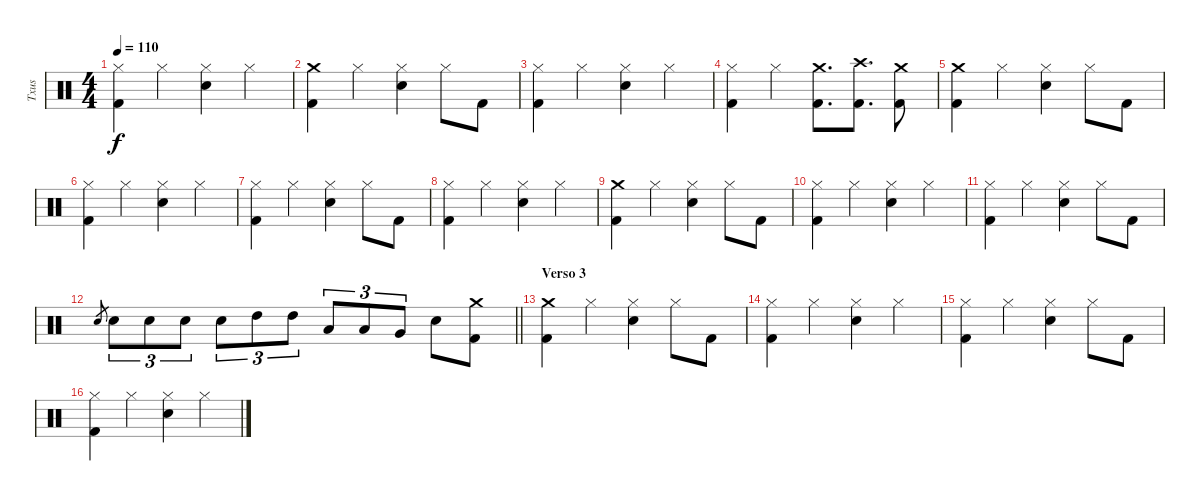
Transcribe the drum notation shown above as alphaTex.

\track ("Txus" "Txus") {instrument percussion}
\staff {score}
\articulation defaults
\ts (4 4)
\tempo 110
\clef neutral
\ks c
("Hi-Hat (closed)" "Kick (hit) 2").4{dy f} "Hi-Hat (closed)".4 ("Hi-Hat (closed)" "Electric Snare (hit)").4 "Hi-Hat (closed)".4 |
("Crash medium (hit)" "Kick (hit) 2").4 "Hi-Hat (closed)".4 ("Hi-Hat (closed)" "Electric Snare (hit)").4 "Hi-Hat (closed)".8 "Kick (hit) 2".8 |
("Hi-Hat (closed)" "Kick (hit) 2").4 "Hi-Hat (closed)".4 ("Hi-Hat (closed)" "Electric Snare (hit)").4 "Hi-Hat (closed)".4 |
("Hi-Hat (closed)" "Kick (hit) 2").4 "Hi-Hat (closed)".4 ("Crash medium (hit)" "Kick (hit) 2").8{d} ("Crash high (hit)" "Kick (hit) 2").8{d} ("Crash medium (hit)" "Kick (hit) 2").8 |
("Crash medium (hit)" "Kick (hit) 2").4 "Hi-Hat (closed)".4 ("Hi-Hat (closed)" "Electric Snare (hit)").4 "Hi-Hat (closed)".8 "Kick (hit) 2".8 |
("Hi-Hat (closed)" "Kick (hit) 2").4 "Hi-Hat (closed)".4 ("Hi-Hat (closed)" "Electric Snare (hit)").4 "Hi-Hat (closed)".4 |
("Hi-Hat (closed)" "Kick (hit) 2").4 "Hi-Hat (closed)".4 ("Hi-Hat (closed)" "Electric Snare (hit)").4 "Hi-Hat (closed)".8 "Kick (hit) 2".8 |
("Hi-Hat (closed)" "Kick (hit) 2").4 "Hi-Hat (closed)".4 ("Hi-Hat (closed)" "Electric Snare (hit)").4 "Hi-Hat (closed)".4 |
("Crash medium (hit)" "Kick (hit) 2").4 "Hi-Hat (closed)".4 ("Hi-Hat (closed)" "Electric Snare (hit)").4 "Hi-Hat (closed)".8 "Kick (hit) 2".8 |
("Hi-Hat (closed)" "Kick (hit) 2").4 "Hi-Hat (closed)".4 ("Hi-Hat (closed)" "Electric Snare (hit)").4 "Hi-Hat (closed)".4 |
("Hi-Hat (closed)" "Kick (hit) 2").4 "Hi-Hat (closed)".4 ("Hi-Hat (closed)" "Electric Snare (hit)").4 "Hi-Hat (closed)".8 "Kick (hit) 2".8 |
\barLineRight lightlight "Electric Snare (hit)".8{gr} "Electric Snare (hit)".8{tu (3 2)} "Electric Snare (hit)".8{tu (3 2)} "Electric Snare (hit)".8{tu (3 2)} "Electric Snare (hit)".8{tu (3 2)} "High Tom (hit)".8{tu (3 2)} "High Tom (hit)".8{tu (3 2)} "Low Tom (hit)".8{tu (3 2)} "Low Tom (hit)".8{tu (3 2)} "Very Low Tom (hit)".8{tu (3 2)} "Electric Snare (hit)".8
("Crash medium (hit)" "Kick (hit) 2").8 |
\section ("" "Verso 3")
("Crash medium (hit)" "Kick (hit) 2").4 "Hi-Hat (closed)".4 ("Hi-Hat (closed)" "Electric Snare (hit)").4 "Hi-Hat (closed)".8 "Kick (hit) 2".8 |
("Hi-Hat (closed)" "Kick (hit) 2").4 "Hi-Hat (closed)".4 ("Hi-Hat (closed)" "Electric Snare (hit)").4 "Hi-Hat (closed)".4 |
("Hi-Hat (closed)" "Kick (hit) 2").4 "Hi-Hat (closed)".4 ("Hi-Hat (closed)" "Electric Snare (hit)").4 "Hi-Hat (closed)".8 "Kick (hit) 2".8 |
("Hi-Hat (closed)" "Kick (hit) 2").4 "Hi-Hat (closed)".4 ("Hi-Hat (closed)" "Electric Snare (hit)").4 "Hi-Hat (closed)".4
